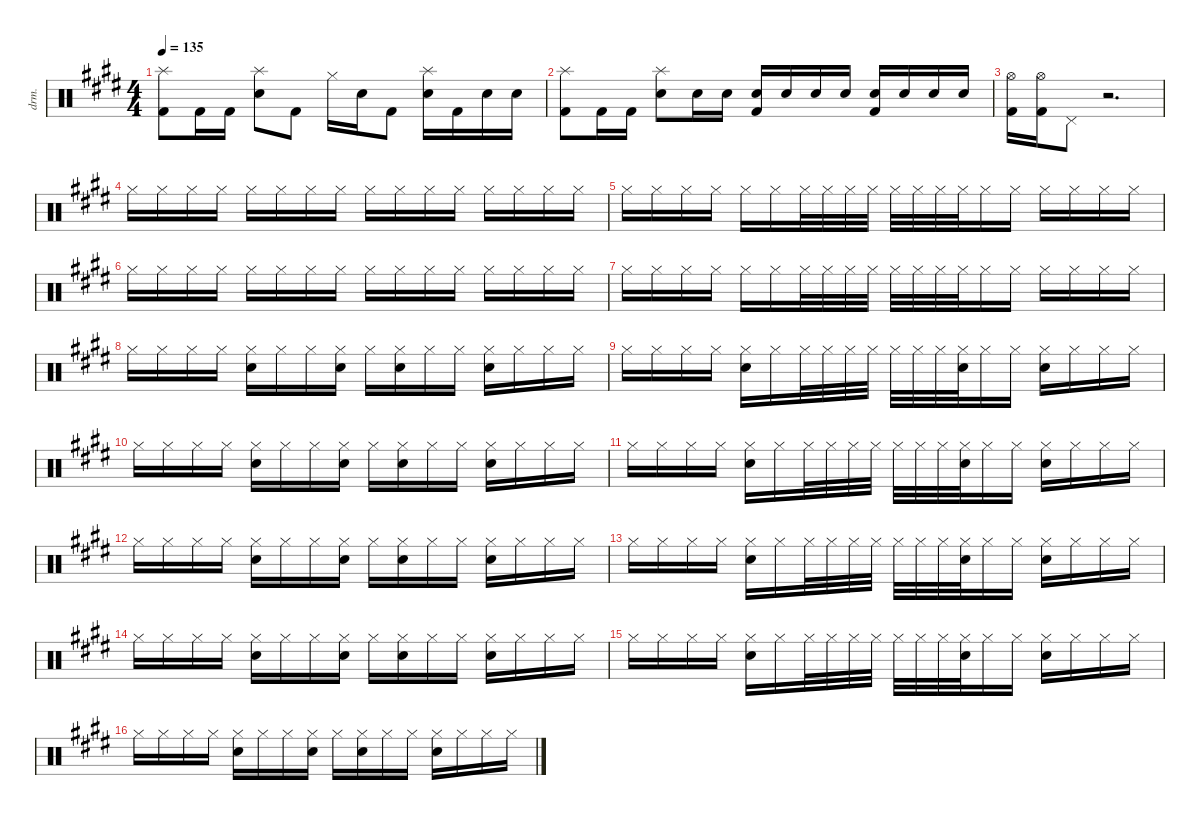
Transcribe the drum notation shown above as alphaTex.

\defaultSystemsLayout 4
\hideDynamics
\bracketExtendMode nobrackets
\track ("Drumkit" "drm.") {instrument percussion}
\staff {score}
\articulation defaults
\ts (4 4)
\tempo 135
\clef neutral
\ks e
("Kick (hit) 2"{acc forcenatural} "Splash (hit)"{acc forcenatural}).8{dy mf} "Kick (hit) 2"{acc forcenatural}.16 "Kick (hit) 2"{acc forcenatural}.16 ("Splash (hit)"{acc forcenatural} "Snare (hit) 2"{acc forcenatural}).8 "Kick (hit) 2"{acc forcenatural}.8 "Hi-Hat (closed)"{acc forcenatural}.16 "Snare (hit) 2"{acc forcenatural}.16 "Kick (hit) 2"{acc forcenatural}.8 ("Splash (hit)"{acc forcenatural} "Snare (hit) 2"{acc forcenatural}).16 "Kick (hit) 2"{acc forcenatural}.16 "Snare (hit) 2"{acc forcenatural}.16 "Snare (hit) 2"{acc forcenatural}.16 |
("Kick (hit) 2"{acc forcenatural} "Splash (hit)"{acc forcenatural}).8 "Kick (hit) 2"{acc forcenatural}.16 "Kick (hit) 2"{acc forcenatural}.16 ("Splash (hit)"{acc forcenatural} "Snare (hit) 2"{acc forcenatural}).8 "Snare (hit) 2"{acc forcenatural}.16 "Snare (hit) 2"{acc forcenatural}.16 ("Snare (hit) 2"{acc forcenatural} "Kick (hit) 2"{acc forcenatural}).16 "Snare (hit) 2"{acc forcenatural}.16 "Snare (hit) 2"{acc forcenatural}.16 "Snare (hit) 2"{acc forcenatural}.16 ("Snare (hit) 2"{acc forcenatural} "Kick (hit) 2"{acc forcenatural}).16 "Snare (hit) 2"{acc forcenatural}.16 "Snare (hit) 2"{acc forcenatural}.16 "Snare (hit) 2"{acc forcenatural}.16 |
("Kick (hit) 2"{acc forcenatural} "Hi-Hat (open)"{acc forcenatural}).16 ("Hi-Hat (open)"{acc forcenatural} "Kick (hit) 2"{acc forcenatural}).16 "Pedal Hi-Hat (hit)"{acc forcenatural}.8 r.2{d} |
"Hi-Hat (closed)"{acc forcenatural}.16 "Hi-Hat (closed)"{acc forcenatural}.16 "Hi-Hat (closed)"{acc forcenatural}.16 "Hi-Hat (closed)"{acc forcenatural}.16 "Hi-Hat (closed)"{acc forcenatural}.16 "Hi-Hat (closed)"{acc forcenatural}.16 "Hi-Hat (closed)"{acc forcenatural}.16 "Hi-Hat (closed)"{acc forcenatural}.16 "Hi-Hat (closed)"{acc forcenatural}.16 "Hi-Hat (closed)"{acc forcenatural}.16 "Hi-Hat (closed)"{acc forcenatural}.16 "Hi-Hat (closed)"{acc forcenatural}.16 "Hi-Hat (closed)"{acc forcenatural}.16 "Hi-Hat (closed)"{acc forcenatural}.16 "Hi-Hat (closed)"{acc forcenatural}.16 "Hi-Hat (closed)"{acc forcenatural}.16 |
"Hi-Hat (closed)"{acc forcenatural}.16 "Hi-Hat (closed)"{acc forcenatural}.16 "Hi-Hat (closed)"{acc forcenatural}.16 "Hi-Hat (closed)"{acc forcenatural}.16 "Hi-Hat (closed)"{acc forcenatural}.16 "Hi-Hat (closed)"{acc forcenatural}.16 "Hi-Hat (closed)"{acc forcenatural}.32 "Hi-Hat (closed)"{acc forcenatural}.32 "Hi-Hat (closed)"{acc forcenatural}.32 "Hi-Hat (closed)"{acc forcenatural}.32 "Hi-Hat (closed)"{acc forcenatural}.32 "Hi-Hat (closed)"{acc forcenatural}.32 "Hi-Hat (closed)"{acc forcenatural}.32 "Hi-Hat (closed)"{acc forcenatural}.32 "Hi-Hat (closed)"{acc forcenatural}.16 "Hi-Hat (closed)"{acc forcenatural}.16 "Hi-Hat (closed)"{acc forcenatural}.16 "Hi-Hat (closed)"{acc forcenatural}.16 "Hi-Hat (closed)"{acc forcenatural}.16 "Hi-Hat (closed)"{acc forcenatural}.16 |
"Hi-Hat (closed)"{acc forcenatural}.16 "Hi-Hat (closed)"{acc forcenatural}.16 "Hi-Hat (closed)"{acc forcenatural}.16 "Hi-Hat (closed)"{acc forcenatural}.16 "Hi-Hat (closed)"{acc forcenatural}.16 "Hi-Hat (closed)"{acc forcenatural}.16 "Hi-Hat (closed)"{acc forcenatural}.16 "Hi-Hat (closed)"{acc forcenatural}.16 "Hi-Hat (closed)"{acc forcenatural}.16 "Hi-Hat (closed)"{acc forcenatural}.16 "Hi-Hat (closed)"{acc forcenatural}.16 "Hi-Hat (closed)"{acc forcenatural}.16 "Hi-Hat (closed)"{acc forcenatural}.16 "Hi-Hat (closed)"{acc forcenatural}.16 "Hi-Hat (closed)"{acc forcenatural}.16 "Hi-Hat (closed)"{acc forcenatural}.16 |
"Hi-Hat (closed)"{acc forcenatural}.16 "Hi-Hat (closed)"{acc forcenatural}.16 "Hi-Hat (closed)"{acc forcenatural}.16 "Hi-Hat (closed)"{acc forcenatural}.16 "Hi-Hat (closed)"{acc forcenatural}.16 "Hi-Hat (closed)"{acc forcenatural}.16 "Hi-Hat (closed)"{acc forcenatural}.32 "Hi-Hat (closed)"{acc forcenatural}.32 "Hi-Hat (closed)"{acc forcenatural}.32 "Hi-Hat (closed)"{acc forcenatural}.32 "Hi-Hat (closed)"{acc forcenatural}.32 "Hi-Hat (closed)"{acc forcenatural}.32 "Hi-Hat (closed)"{acc forcenatural}.32 "Hi-Hat (closed)"{acc forcenatural}.32 "Hi-Hat (closed)"{acc forcenatural}.16 "Hi-Hat (closed)"{acc forcenatural}.16 "Hi-Hat (closed)"{acc forcenatural}.16 "Hi-Hat (closed)"{acc forcenatural}.16 "Hi-Hat (closed)"{acc forcenatural}.16 "Hi-Hat (closed)"{acc forcenatural}.16 |
"Hi-Hat (closed)"{acc forcenatural}.16 "Hi-Hat (closed)"{acc forcenatural}.16 "Hi-Hat (closed)"{acc forcenatural}.16 "Hi-Hat (closed)"{acc forcenatural}.16 ("Hi-Hat (closed)"{acc forcenatural} "Snare (hit) 2"{acc forcenatural}).16 "Hi-Hat (closed)"{acc forcenatural}.16 "Hi-Hat (closed)"{acc forcenatural}.16 ("Hi-Hat (closed)"{acc forcenatural} "Snare (hit) 2"{acc forcenatural}).16 "Hi-Hat (closed)"{acc forcenatural}.16 ("Hi-Hat (closed)"{acc forcenatural} "Snare (hit) 2"{acc forcenatural}).16 "Hi-Hat (closed)"{acc forcenatural}.16 "Hi-Hat (closed)"{acc forcenatural}.16 ("Hi-Hat (closed)"{acc forcenatural} "Snare (hit) 2"{acc forcenatural}).16 "Hi-Hat (closed)"{acc forcenatural}.16 "Hi-Hat (closed)"{acc forcenatural}.16 "Hi-Hat (closed)"{acc forcenatural}.16 |
"Hi-Hat (closed)"{acc forcenatural}.16 "Hi-Hat (closed)"{acc forcenatural}.16 "Hi-Hat (closed)"{acc forcenatural}.16 "Hi-Hat (closed)"{acc forcenatural}.16 ("Hi-Hat (closed)"{acc forcenatural} "Snare (hit) 2"{acc forcenatural}).16 "Hi-Hat (closed)"{acc forcenatural}.16 "Hi-Hat (closed)"{acc forcenatural}.32 "Hi-Hat (closed)"{acc forcenatural}.32 "Hi-Hat (closed)"{acc forcenatural}.32 "Hi-Hat (closed)"{acc forcenatural}.32 "Hi-Hat (closed)"{acc forcenatural}.32 "Hi-Hat (closed)"{acc forcenatural}.32 "Hi-Hat (closed)"{acc forcenatural}.32 ("Hi-Hat (closed)"{acc forcenatural} "Snare (hit) 2"{acc forcenatural}).32 "Hi-Hat (closed)"{acc forcenatural}.16 "Hi-Hat (closed)"{acc forcenatural}.16 ("Hi-Hat (closed)"{acc forcenatural} "Snare (hit) 2"{acc forcenatural}).16 "Hi-Hat (closed)"{acc forcenatural}.16 "Hi-Hat (closed)"{acc forcenatural}.16 "Hi-Hat (closed)"{acc forcenatural}.16 |
"Hi-Hat (closed)"{acc forcenatural}.16 "Hi-Hat (closed)"{acc forcenatural}.16 "Hi-Hat (closed)"{acc forcenatural}.16 "Hi-Hat (closed)"{acc forcenatural}.16 ("Hi-Hat (closed)"{acc forcenatural} "Snare (hit) 2"{acc forcenatural}).16 "Hi-Hat (closed)"{acc forcenatural}.16 "Hi-Hat (closed)"{acc forcenatural}.16 ("Hi-Hat (closed)"{acc forcenatural} "Snare (hit) 2"{acc forcenatural}).16 "Hi-Hat (closed)"{acc forcenatural}.16 ("Hi-Hat (closed)"{acc forcenatural} "Snare (hit) 2"{acc forcenatural}).16 "Hi-Hat (closed)"{acc forcenatural}.16 "Hi-Hat (closed)"{acc forcenatural}.16 ("Hi-Hat (closed)"{acc forcenatural} "Snare (hit) 2"{acc forcenatural}).16 "Hi-Hat (closed)"{acc forcenatural}.16 "Hi-Hat (closed)"{acc forcenatural}.16 "Hi-Hat (closed)"{acc forcenatural}.16 |
"Hi-Hat (closed)"{acc forcenatural}.16 "Hi-Hat (closed)"{acc forcenatural}.16 "Hi-Hat (closed)"{acc forcenatural}.16 "Hi-Hat (closed)"{acc forcenatural}.16 ("Hi-Hat (closed)"{acc forcenatural} "Snare (hit) 2"{acc forcenatural}).16 "Hi-Hat (closed)"{acc forcenatural}.16 "Hi-Hat (closed)"{acc forcenatural}.32 "Hi-Hat (closed)"{acc forcenatural}.32 "Hi-Hat (closed)"{acc forcenatural}.32 "Hi-Hat (closed)"{acc forcenatural}.32 "Hi-Hat (closed)"{acc forcenatural}.32 "Hi-Hat (closed)"{acc forcenatural}.32 "Hi-Hat (closed)"{acc forcenatural}.32 ("Hi-Hat (closed)"{acc forcenatural} "Snare (hit) 2"{acc forcenatural}).32 "Hi-Hat (closed)"{acc forcenatural}.16 "Hi-Hat (closed)"{acc forcenatural}.16 ("Hi-Hat (closed)"{acc forcenatural} "Snare (hit) 2"{acc forcenatural}).16 "Hi-Hat (closed)"{acc forcenatural}.16 "Hi-Hat (closed)"{acc forcenatural}.16 "Hi-Hat (closed)"{acc forcenatural}.16 |
"Hi-Hat (closed)"{acc forcenatural}.16 "Hi-Hat (closed)"{acc forcenatural}.16 "Hi-Hat (closed)"{acc forcenatural}.16 "Hi-Hat (closed)"{acc forcenatural}.16 ("Hi-Hat (closed)"{acc forcenatural} "Snare (hit) 2"{acc forcenatural}).16 "Hi-Hat (closed)"{acc forcenatural}.16 "Hi-Hat (closed)"{acc forcenatural}.16 ("Hi-Hat (closed)"{acc forcenatural} "Snare (hit) 2"{acc forcenatural}).16 "Hi-Hat (closed)"{acc forcenatural}.16 ("Hi-Hat (closed)"{acc forcenatural} "Snare (hit) 2"{acc forcenatural}).16 "Hi-Hat (closed)"{acc forcenatural}.16 "Hi-Hat (closed)"{acc forcenatural}.16 ("Hi-Hat (closed)"{acc forcenatural} "Snare (hit) 2"{acc forcenatural}).16 "Hi-Hat (closed)"{acc forcenatural}.16 "Hi-Hat (closed)"{acc forcenatural}.16 "Hi-Hat (closed)"{acc forcenatural}.16 |
"Hi-Hat (closed)"{acc forcenatural}.16 "Hi-Hat (closed)"{acc forcenatural}.16 "Hi-Hat (closed)"{acc forcenatural}.16 "Hi-Hat (closed)"{acc forcenatural}.16 ("Hi-Hat (closed)"{acc forcenatural} "Snare (hit) 2"{acc forcenatural}).16 "Hi-Hat (closed)"{acc forcenatural}.16 "Hi-Hat (closed)"{acc forcenatural}.32 "Hi-Hat (closed)"{acc forcenatural}.32 "Hi-Hat (closed)"{acc forcenatural}.32 "Hi-Hat (closed)"{acc forcenatural}.32 "Hi-Hat (closed)"{acc forcenatural}.32 "Hi-Hat (closed)"{acc forcenatural}.32 "Hi-Hat (closed)"{acc forcenatural}.32 ("Hi-Hat (closed)"{acc forcenatural} "Snare (hit) 2"{acc forcenatural}).32 "Hi-Hat (closed)"{acc forcenatural}.16 "Hi-Hat (closed)"{acc forcenatural}.16 ("Hi-Hat (closed)"{acc forcenatural} "Snare (hit) 2"{acc forcenatural}).16 "Hi-Hat (closed)"{acc forcenatural}.16 "Hi-Hat (closed)"{acc forcenatural}.16 "Hi-Hat (closed)"{acc forcenatural}.16 |
"Hi-Hat (closed)"{acc forcenatural}.16 "Hi-Hat (closed)"{acc forcenatural}.16 "Hi-Hat (closed)"{acc forcenatural}.16 "Hi-Hat (closed)"{acc forcenatural}.16 ("Hi-Hat (closed)"{acc forcenatural} "Snare (hit) 2"{acc forcenatural}).16 "Hi-Hat (closed)"{acc forcenatural}.16 "Hi-Hat (closed)"{acc forcenatural}.16 ("Hi-Hat (closed)"{acc forcenatural} "Snare (hit) 2"{acc forcenatural}).16 "Hi-Hat (closed)"{acc forcenatural}.16 ("Hi-Hat (closed)"{acc forcenatural} "Snare (hit) 2"{acc forcenatural}).16 "Hi-Hat (closed)"{acc forcenatural}.16 "Hi-Hat (closed)"{acc forcenatural}.16 ("Hi-Hat (closed)"{acc forcenatural} "Snare (hit) 2"{acc forcenatural}).16 "Hi-Hat (closed)"{acc forcenatural}.16 "Hi-Hat (closed)"{acc forcenatural}.16 "Hi-Hat (closed)"{acc forcenatural}.16 |
"Hi-Hat (closed)"{acc forcenatural}.16 "Hi-Hat (closed)"{acc forcenatural}.16 "Hi-Hat (closed)"{acc forcenatural}.16 "Hi-Hat (closed)"{acc forcenatural}.16 ("Hi-Hat (closed)"{acc forcenatural} "Snare (hit) 2"{acc forcenatural}).16 "Hi-Hat (closed)"{acc forcenatural}.16 "Hi-Hat (closed)"{acc forcenatural}.32 "Hi-Hat (closed)"{acc forcenatural}.32 "Hi-Hat (closed)"{acc forcenatural}.32 "Hi-Hat (closed)"{acc forcenatural}.32 "Hi-Hat (closed)"{acc forcenatural}.32 "Hi-Hat (closed)"{acc forcenatural}.32 "Hi-Hat (closed)"{acc forcenatural}.32 ("Hi-Hat (closed)"{acc forcenatural} "Snare (hit) 2"{acc forcenatural}).32 "Hi-Hat (closed)"{acc forcenatural}.16 "Hi-Hat (closed)"{acc forcenatural}.16 ("Hi-Hat (closed)"{acc forcenatural} "Snare (hit) 2"{acc forcenatural}).16 "Hi-Hat (closed)"{acc forcenatural}.16 "Hi-Hat (closed)"{acc forcenatural}.16 "Hi-Hat (closed)"{acc forcenatural}.16 |
"Hi-Hat (closed)"{acc forcenatural}.16 "Hi-Hat (closed)"{acc forcenatural}.16 "Hi-Hat (closed)"{acc forcenatural}.16 "Hi-Hat (closed)"{acc forcenatural}.16 ("Hi-Hat (closed)"{acc forcenatural} "Snare (hit) 2"{acc forcenatural}).16 "Hi-Hat (closed)"{acc forcenatural}.16 "Hi-Hat (closed)"{acc forcenatural}.16 ("Hi-Hat (closed)"{acc forcenatural} "Snare (hit) 2"{acc forcenatural}).16 "Hi-Hat (closed)"{acc forcenatural}.16 ("Hi-Hat (closed)"{acc forcenatural} "Snare (hit) 2"{acc forcenatural}).16 "Hi-Hat (closed)"{acc forcenatural}.16 "Hi-Hat (closed)"{acc forcenatural}.16 ("Hi-Hat (closed)"{acc forcenatural} "Snare (hit) 2"{acc forcenatural}).16 "Hi-Hat (closed)"{acc forcenatural}.16 "Hi-Hat (closed)"{acc forcenatural}.16 "Hi-Hat (closed)"{acc forcenatural}.16
